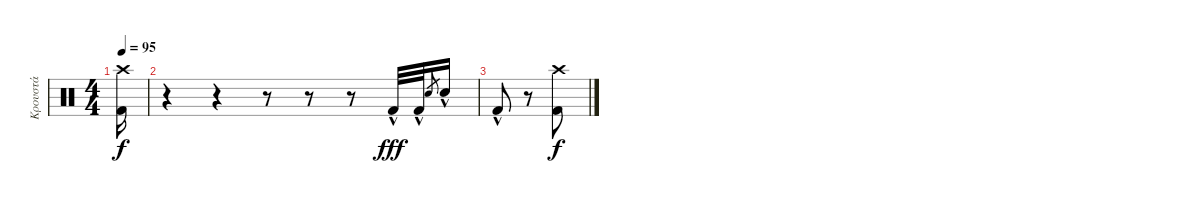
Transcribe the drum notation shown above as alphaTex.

\track ("Κρουστά" "Κρουστά") {instrument percussion}
\staff {score}
\articulation defaults
\ts (4 4)
\tempo 95
\clef neutral
\ks c
("Crash high (hit)" "Kick (hit) 2").16{dy f} |
r.4 r.4 r.8 r.8 r.8 "Kick (hit) 2"{hac}.32{dy fff} "Kick (hit) 2"{hac}.32 "Electric Snare (hit)".8{gr} "Electric Snare (hit)"{hac}.16 |
"Kick (hit) 2"{hac}.8 r.8 ("Kick (hit) 2" "Crash high (hit)").8{dy f}
